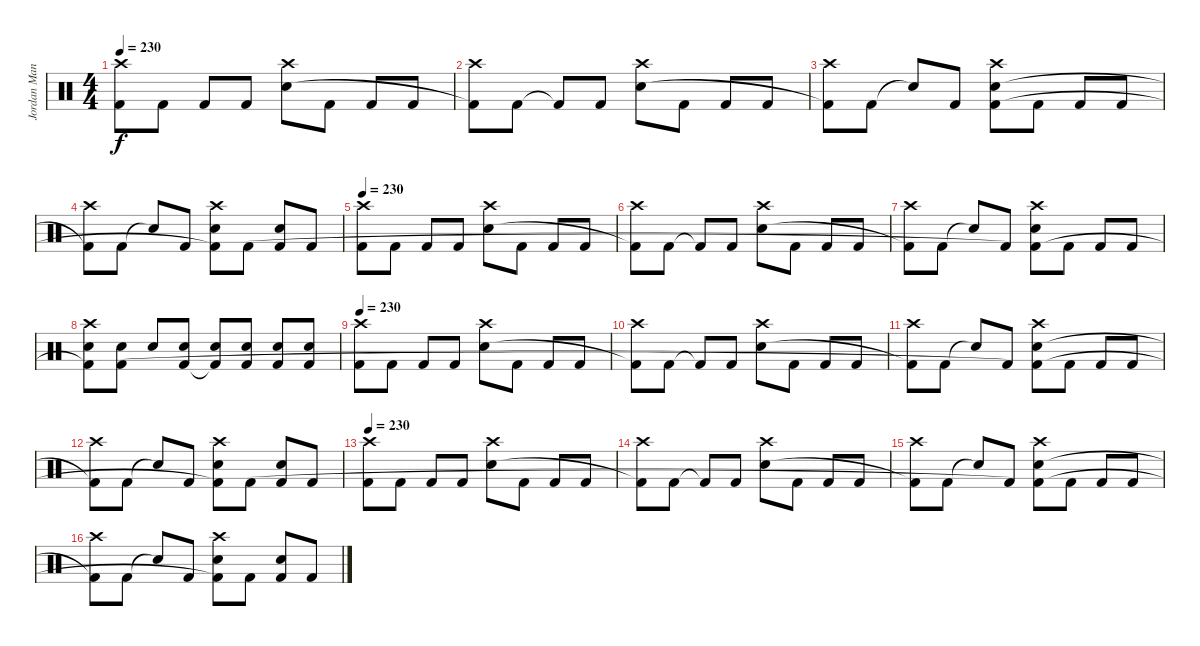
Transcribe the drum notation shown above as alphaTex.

\track ("Jordan Mancino" "Jordan Man") {instrument percussion}
\staff {score}
\articulation defaults
\ts (4 4)
\tempo 230
\clef neutral
\ks c
("Crash high (hit)" "Kick (hit) 2").8{dy f} "Kick (hit) 2".8 "Kick (hit) 2".8 "Kick (hit) 2".8 ("Crash high (hit)" "Electric Snare (hit)").8 "Kick (hit) 2".8 "Kick (hit) 2".8 "Kick (hit) 2".8 |
("Crash high (hit)" "Kick (hit) 2"{t}).8 "Kick (hit) 2".8 "Kick (hit) 2"{t}.8 "Kick (hit) 2".8 ("Crash high (hit)" "Electric Snare (hit)").8 "Kick (hit) 2".8 "Kick (hit) 2".8 "Kick (hit) 2".8 |
("Crash high (hit)" "Kick (hit) 2"{t}).8 "Kick (hit) 2".8 "Snare (hit)"{t}.8 "Kick (hit) 2".8 ("Crash high (hit)" "Electric Snare (hit)" "Kick (hit) 2"{t}).8 "Kick (hit) 2".8 "Kick (hit) 2".8 "Kick (hit) 2".8 |
("Crash high (hit)" "Kick (hit) 2"{t}).8 "Kick (hit) 2".8 "Snare (hit)"{t}.8 "Kick (hit) 2".8 ("Crash high (hit)" "Electric Snare (hit)" "Kick (hit) 2"{t}).8 "Kick (hit) 2".8 ("Electric Snare (hit)" "Kick (hit) 2").8 "Kick (hit) 2".8 |
\tempo 230
("Crash high (hit)" "Kick (hit) 2").8 "Kick (hit) 2".8 "Kick (hit) 2".8 "Kick (hit) 2".8 ("Crash high (hit)" "Electric Snare (hit)").8 "Kick (hit) 2".8 "Kick (hit) 2".8 "Kick (hit) 2".8 |
("Crash high (hit)" "Kick (hit) 2"{t}).8 "Kick (hit) 2".8 "Kick (hit) 2"{t}.8 "Kick (hit) 2".8 ("Crash high (hit)" "Electric Snare (hit)").8 "Kick (hit) 2".8 "Kick (hit) 2".8 "Kick (hit) 2".8 |
("Crash high (hit)" "Kick (hit) 2"{t}).8 "Kick (hit) 2".8 "Snare (hit)"{t}.8 "Kick (hit) 2".8 ("Crash high (hit)" "Electric Snare (hit)" "Kick (hit) 2"{t}).8 "Kick (hit) 2".8 "Kick (hit) 2".8 "Kick (hit) 2".8 |
("Crash high (hit)" "Electric Snare (hit)" "Kick (hit) 2"{t}).8 ("Electric Snare (hit)" "Kick (hit) 2").8 "Electric Snare (hit)".8 ("Electric Snare (hit)" "Kick (hit) 2").8 ("Electric Snare (hit)" "Kick (hit) 2"{t}).8 ("Electric Snare (hit)" "Kick (hit) 2").8 ("Electric Snare (hit)" "Kick (hit) 2").8 ("Electric Snare (hit)" "Kick (hit) 2").8 |
\tempo 230
("Crash high (hit)" "Kick (hit) 2").8 "Kick (hit) 2".8 "Kick (hit) 2".8 "Kick (hit) 2".8 ("Crash high (hit)" "Electric Snare (hit)").8 "Kick (hit) 2".8 "Kick (hit) 2".8 "Kick (hit) 2".8 |
("Crash high (hit)" "Kick (hit) 2"{t}).8 "Kick (hit) 2".8 "Kick (hit) 2"{t}.8 "Kick (hit) 2".8 ("Crash high (hit)" "Electric Snare (hit)").8 "Kick (hit) 2".8 "Kick (hit) 2".8 "Kick (hit) 2".8 |
("Crash high (hit)" "Kick (hit) 2"{t}).8 "Kick (hit) 2".8 "Snare (hit)"{t}.8 "Kick (hit) 2".8 ("Crash high (hit)" "Electric Snare (hit)" "Kick (hit) 2"{t}).8 "Kick (hit) 2".8 "Kick (hit) 2".8 "Kick (hit) 2".8 |
("Crash high (hit)" "Kick (hit) 2"{t}).8 "Kick (hit) 2".8 "Snare (hit)"{t}.8 "Kick (hit) 2".8 ("Crash high (hit)" "Electric Snare (hit)" "Kick (hit) 2"{t}).8 "Kick (hit) 2".8 ("Electric Snare (hit)" "Kick (hit) 2").8 "Kick (hit) 2".8 |
\tempo 230
("Crash high (hit)" "Kick (hit) 2").8 "Kick (hit) 2".8 "Kick (hit) 2".8 "Kick (hit) 2".8 ("Crash high (hit)" "Electric Snare (hit)").8 "Kick (hit) 2".8 "Kick (hit) 2".8 "Kick (hit) 2".8 |
("Crash high (hit)" "Kick (hit) 2"{t}).8 "Kick (hit) 2".8 "Kick (hit) 2"{t}.8 "Kick (hit) 2".8 ("Crash high (hit)" "Electric Snare (hit)").8 "Kick (hit) 2".8 "Kick (hit) 2".8 "Kick (hit) 2".8 |
("Crash high (hit)" "Kick (hit) 2"{t}).8 "Kick (hit) 2".8 "Snare (hit)"{t}.8 "Kick (hit) 2".8 ("Crash high (hit)" "Electric Snare (hit)" "Kick (hit) 2"{t}).8 "Kick (hit) 2".8 "Kick (hit) 2".8 "Kick (hit) 2".8 |
("Crash high (hit)" "Kick (hit) 2"{t}).8 "Kick (hit) 2".8 "Snare (hit)"{t}.8 "Kick (hit) 2".8 ("Crash high (hit)" "Electric Snare (hit)" "Kick (hit) 2"{t}).8 "Kick (hit) 2".8 ("Electric Snare (hit)" "Kick (hit) 2").8 "Kick (hit) 2".8
